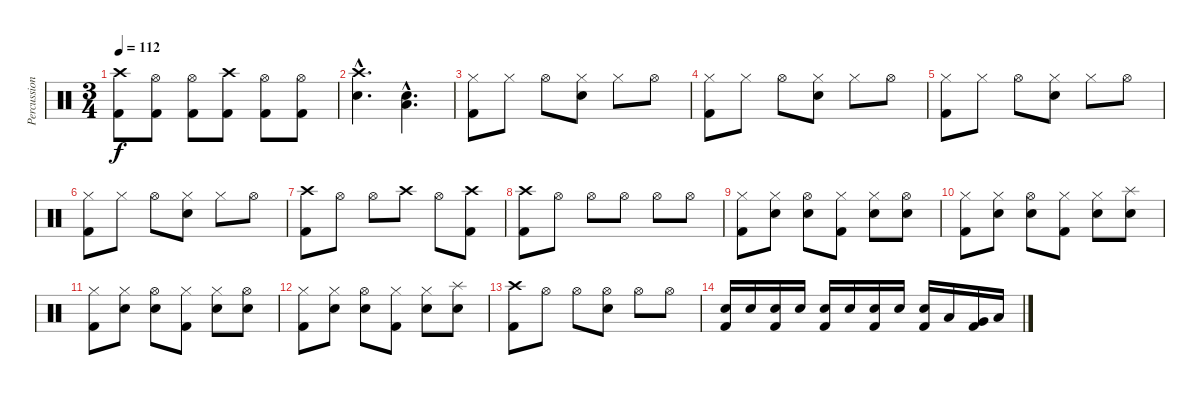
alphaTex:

\track ("Percussions" "Percussion") {instrument percussion}
\staff {score}
\articulation defaults
\ts (3 4)
\tempo 112
\clef neutral
\ks c
("Kick (hit) 2" "Crash high (hit)").8{dy f} ("Kick (hit) 2" "Hi-Hat (open)").8 ("Kick (hit) 2" "Hi-Hat (open)").8 ("Kick (hit) 2" "Crash high (hit)").8 ("Kick (hit) 2" "Hi-Hat (open)").8 ("Kick (hit) 2" "Hi-Hat (open)").8 |
("Electric Snare (hit)"{hac} "Crash high (hit)"{hac}).4{d} ("Electric Snare (hit)"{hac} "Low Floor Tom (hit)"{hac}).4{d} |
("Kick (hit) 2" "Hi-Hat (closed)").8 "Hi-Hat (closed)".8 "Hi-Hat (open)".8 ("Electric Snare (hit)" "Hi-Hat (closed)").8 "Hi-Hat (closed)".8 "Hi-Hat (open)".8 |
("Kick (hit) 2" "Hi-Hat (closed)").8 "Hi-Hat (closed)".8 "Hi-Hat (open)".8 ("Electric Snare (hit)" "Hi-Hat (closed)").8 "Hi-Hat (closed)".8 "Hi-Hat (open)".8 |
("Kick (hit) 2" "Hi-Hat (closed)").8 "Hi-Hat (closed)".8 "Hi-Hat (open)".8 ("Electric Snare (hit)" "Hi-Hat (closed)").8 "Hi-Hat (closed)".8 "Hi-Hat (open)".8 |
("Kick (hit) 2" "Hi-Hat (closed)").8 "Hi-Hat (closed)".8 "Hi-Hat (open)".8 ("Electric Snare (hit)" "Hi-Hat (closed)").8 "Hi-Hat (closed)".8 "Hi-Hat (open)".8 |
("Kick (hit) 2" "Crash high (hit)").8 "Hi-Hat (open)".8 "Hi-Hat (open)".8 "Crash high (hit)".8 "Hi-Hat (open)".8 ("Kick (hit) 2" "Crash high (hit)").8 |
("Kick (hit) 2" "Crash high (hit)").8 "Hi-Hat (open)".8 "Hi-Hat (open)".8 "Hi-Hat (open)".8 "Hi-Hat (open)".8 "Hi-Hat (open)".8 |
("Kick (hit) 2" "Hi-Hat (closed)").8 ("Electric Snare (hit)" "Hi-Hat (closed)").8 ("Electric Snare (hit)" "Hi-Hat (open)").8 ("Kick (hit) 2" "Hi-Hat (closed)").8 ("Electric Snare (hit)" "Hi-Hat (closed)").8 ("Electric Snare (hit)" "Hi-Hat (open)").8 |
("Kick (hit) 2" "Hi-Hat (closed)").8 ("Electric Snare (hit)" "Hi-Hat (closed)").8 ("Electric Snare (hit)" "Hi-Hat (open)").8 ("Kick (hit) 2" "Hi-Hat (closed)").8 ("Electric Snare (hit)" "Hi-Hat (closed)").8 ("Electric Snare (hit)" "Splash (hit)").8 |
("Kick (hit) 2" "Hi-Hat (closed)").8 ("Electric Snare (hit)" "Hi-Hat (closed)").8 ("Electric Snare (hit)" "Hi-Hat (open)").8 ("Kick (hit) 2" "Hi-Hat (closed)").8 ("Electric Snare (hit)" "Hi-Hat (closed)").8 ("Electric Snare (hit)" "Hi-Hat (open)").8 |
("Kick (hit) 2" "Hi-Hat (closed)").8 ("Electric Snare (hit)" "Hi-Hat (closed)").8 ("Electric Snare (hit)" "Hi-Hat (open)").8 ("Kick (hit) 2" "Hi-Hat (closed)").8 ("Electric Snare (hit)" "Hi-Hat (closed)").8 ("Electric Snare (hit)" "Splash (hit)").8 |
("Kick (hit) 2" "Crash high (hit)").8 "Hi-Hat (open)".8 "Hi-Hat (open)".8 ("Electric Snare (hit)" "Hi-Hat (open)").8 "Hi-Hat (open)".8 "Hi-Hat (open)".8 |
("Kick (hit) 2" "Electric Snare (hit)").16 "Electric Snare (hit)".16 ("Kick (hit) 2" "Electric Snare (hit)").16 "Electric Snare (hit)".16 ("Kick (hit) 2" "Electric Snare (hit)").16 "Electric Snare (hit)".16 ("Kick (hit) 2" "Electric Snare (hit)").16 "Electric Snare (hit)".16 ("Kick (hit) 2" "Electric Snare (hit)").16 "Low Tom (hit)".16 ("Kick (hit) 2" "Very Low Tom (hit)").16 "Low Floor Tom (hit)".16
